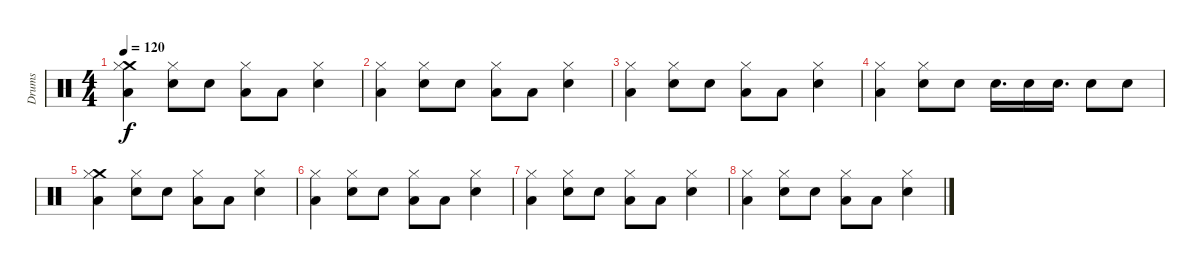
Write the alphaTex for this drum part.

\track ("Drums" "Drums") {instrument percussion}
\staff {score}
\articulation defaults
\ts (4 4)
\tempo 120
\clef neutral
\ks c
("Crash medium (hit)" "Hi-Hat (closed)" "Low Floor Tom (hit)").4{dy f} ("Hi-Hat (closed)" "Electric Snare (hit)").8 "Electric Snare (hit)".8 ("Hi-Hat (closed)" "Low Floor Tom (hit)").8 "Low Floor Tom (hit)".8 ("Hi-Hat (closed)" "Electric Snare (hit)").4 |
("Hi-Hat (closed)" "Low Floor Tom (hit)").4 ("Hi-Hat (closed)" "Electric Snare (hit)").8 "Electric Snare (hit)".8 ("Hi-Hat (closed)" "Low Floor Tom (hit)").8 "Low Floor Tom (hit)".8 ("Hi-Hat (closed)" "Electric Snare (hit)").4 |
("Hi-Hat (closed)" "Low Floor Tom (hit)").4 ("Hi-Hat (closed)" "Electric Snare (hit)").8 "Electric Snare (hit)".8 ("Hi-Hat (closed)" "Low Floor Tom (hit)").8 "Low Floor Tom (hit)".8 ("Hi-Hat (closed)" "Electric Snare (hit)").4 |
("Hi-Hat (closed)" "Low Floor Tom (hit)").4 ("Hi-Hat (closed)" "Electric Snare (hit)").8 "Electric Snare (hit)".8 "Electric Snare (hit)".16{d} "Electric Snare (hit)".16 "Electric Snare (hit)".16{d} "Electric Snare (hit)".8 "Electric Snare (hit)".8 |
("Crash medium (hit)" "Hi-Hat (closed)" "Low Floor Tom (hit)").4 ("Hi-Hat (closed)" "Electric Snare (hit)").8 "Electric Snare (hit)".8 ("Hi-Hat (closed)" "Low Floor Tom (hit)").8 "Low Floor Tom (hit)".8 ("Hi-Hat (closed)" "Electric Snare (hit)").4 |
("Hi-Hat (closed)" "Low Floor Tom (hit)").4 ("Hi-Hat (closed)" "Electric Snare (hit)").8 "Electric Snare (hit)".8 ("Hi-Hat (closed)" "Low Floor Tom (hit)").8 "Low Floor Tom (hit)".8 ("Hi-Hat (closed)" "Electric Snare (hit)").4 |
("Hi-Hat (closed)" "Low Floor Tom (hit)").4 ("Hi-Hat (closed)" "Electric Snare (hit)").8 "Electric Snare (hit)".8 ("Hi-Hat (closed)" "Low Floor Tom (hit)").8 "Low Floor Tom (hit)".8 ("Hi-Hat (closed)" "Electric Snare (hit)").4 |
("Hi-Hat (closed)" "Low Floor Tom (hit)").4 ("Hi-Hat (closed)" "Electric Snare (hit)").8 "Electric Snare (hit)".8 ("Hi-Hat (closed)" "Low Floor Tom (hit)").8 "Low Floor Tom (hit)".8 ("Hi-Hat (closed)" "Electric Snare (hit)").4
